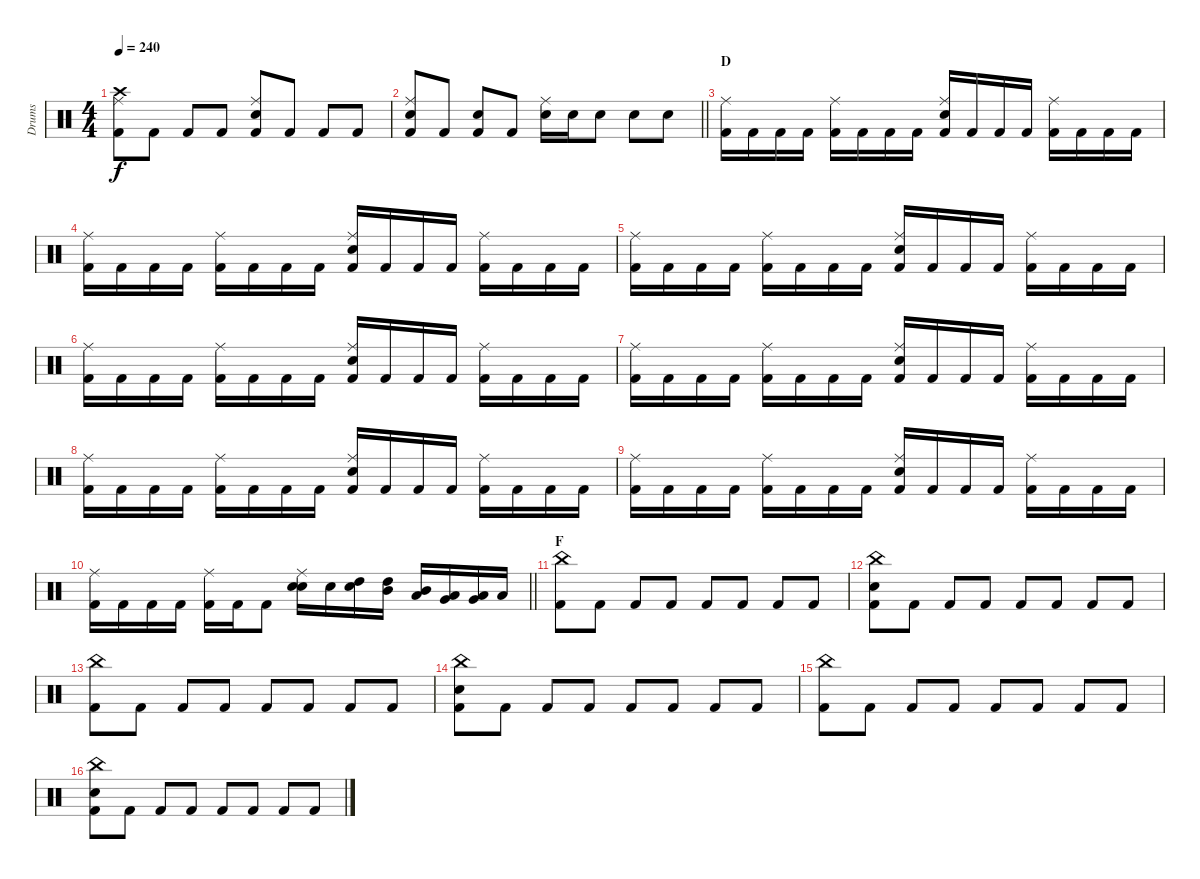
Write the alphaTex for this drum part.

\track ("Drums" "Drums") {instrument percussion}
\staff {score}
\articulation defaults
\ts (4 4)
\tempo 240
\clef neutral
\ks c
("Kick (hit) 2" "Crash high (hit)" "Ride (middle)").8{dy f} "Kick (hit) 2".8 "Kick (hit) 2".8 "Kick (hit) 2".8 ("Kick (hit) 2" "Snare (hit) 2" "Ride (middle)").8 "Kick (hit) 2".8 "Kick (hit) 2".8 "Kick (hit) 2".8 |
\barLineRight lightlight
("Kick (hit) 2" "Snare (hit) 2" "Ride (middle)").8 "Kick (hit) 2".8 ("Kick (hit) 2" "Snare (hit) 2").8 "Kick (hit) 2".8 ("Snare (hit) 2" "Ride (middle)").16 "Snare (hit) 2".16 "Snare (hit) 2".8 "Snare (hit) 2".8 "Snare (hit) 2".8 |
\section ("" "D")
("Kick (hit) 2" "Ride (middle)").16 "Kick (hit) 2".16 "Kick (hit) 2".16 "Kick (hit) 2".16 ("Kick (hit) 2" "Ride (middle)").16 "Kick (hit) 2".16 "Kick (hit) 2".16 "Kick (hit) 2".16 ("Kick (hit) 2" "Snare (hit) 2" "Ride (middle)").16 "Kick (hit) 2".16 "Kick (hit) 2".16 "Kick (hit) 2".16 ("Kick (hit) 2" "Ride (middle)").16 "Kick (hit) 2".16 "Kick (hit) 2".16 "Kick (hit) 2".16 |
("Kick (hit) 2" "Ride (middle)").16 "Kick (hit) 2".16 "Kick (hit) 2".16 "Kick (hit) 2".16 ("Kick (hit) 2" "Ride (middle)").16 "Kick (hit) 2".16 "Kick (hit) 2".16 "Kick (hit) 2".16 ("Kick (hit) 2" "Snare (hit) 2" "Ride (middle)").16 "Kick (hit) 2".16 "Kick (hit) 2".16 "Kick (hit) 2".16 ("Kick (hit) 2" "Ride (middle)").16 "Kick (hit) 2".16 "Kick (hit) 2".16 "Kick (hit) 2".16 |
("Kick (hit) 2" "Ride (middle)").16 "Kick (hit) 2".16 "Kick (hit) 2".16 "Kick (hit) 2".16 ("Kick (hit) 2" "Ride (middle)").16 "Kick (hit) 2".16 "Kick (hit) 2".16 "Kick (hit) 2".16 ("Kick (hit) 2" "Snare (hit) 2" "Ride (middle)").16 "Kick (hit) 2".16 "Kick (hit) 2".16 "Kick (hit) 2".16 ("Kick (hit) 2" "Ride (middle)").16 "Kick (hit) 2".16 "Kick (hit) 2".16 "Kick (hit) 2".16 |
("Kick (hit) 2" "Ride (middle)").16 "Kick (hit) 2".16 "Kick (hit) 2".16 "Kick (hit) 2".16 ("Kick (hit) 2" "Ride (middle)").16 "Kick (hit) 2".16 "Kick (hit) 2".16 "Kick (hit) 2".16 ("Kick (hit) 2" "Snare (hit) 2" "Ride (middle)").16 "Kick (hit) 2".16 "Kick (hit) 2".16 "Kick (hit) 2".16 ("Kick (hit) 2" "Ride (middle)").16 "Kick (hit) 2".16 "Kick (hit) 2".16 "Kick (hit) 2".16 |
("Kick (hit) 2" "Ride (middle)").16 "Kick (hit) 2".16 "Kick (hit) 2".16 "Kick (hit) 2".16 ("Kick (hit) 2" "Ride (middle)").16 "Kick (hit) 2".16 "Kick (hit) 2".16 "Kick (hit) 2".16 ("Kick (hit) 2" "Snare (hit) 2" "Ride (middle)").16 "Kick (hit) 2".16 "Kick (hit) 2".16 "Kick (hit) 2".16 ("Kick (hit) 2" "Ride (middle)").16 "Kick (hit) 2".16 "Kick (hit) 2".16 "Kick (hit) 2".16 |
("Kick (hit) 2" "Ride (middle)").16 "Kick (hit) 2".16 "Kick (hit) 2".16 "Kick (hit) 2".16 ("Kick (hit) 2" "Ride (middle)").16 "Kick (hit) 2".16 "Kick (hit) 2".16 "Kick (hit) 2".16 ("Kick (hit) 2" "Snare (hit) 2" "Ride (middle)").16 "Kick (hit) 2".16 "Kick (hit) 2".16 "Kick (hit) 2".16 ("Kick (hit) 2" "Ride (middle)").16 "Kick (hit) 2".16 "Kick (hit) 2".16 "Kick (hit) 2".16 |
("Kick (hit) 2" "Ride (middle)").16 "Kick (hit) 2".16 "Kick (hit) 2".16 "Kick (hit) 2".16 ("Kick (hit) 2" "Ride (middle)").16 "Kick (hit) 2".16 "Kick (hit) 2".16 "Kick (hit) 2".16 ("Kick (hit) 2" "Snare (hit) 2" "Ride (middle)").16 "Kick (hit) 2".16 "Kick (hit) 2".16 "Kick (hit) 2".16 ("Kick (hit) 2" "Ride (middle)").16 "Kick (hit) 2".16 "Kick (hit) 2".16 "Kick (hit) 2".16 |
\barLineRight lightlight
("Kick (hit) 2" "Ride (middle)").16 "Kick (hit) 2".16 "Kick (hit) 2".16 "Kick (hit) 2".16 ("Kick (hit) 2" "Ride (middle)").16 "Kick (hit) 2".16 "Kick (hit) 2".8 ("Snare (hit) 2" "Snare (hit) 2" "Ride (middle)").16 "Snare (hit) 2".16 ("Snare (hit) 2" "High Tom (hit)").16 ("High Tom (hit)" "Mid Tom (hit)").16 ("Mid Tom (hit)" "Low Tom (hit)").16 ("Low Tom (hit)" "Very Low Tom (hit)").16 ("Very Low Tom (hit)" "Low Floor Tom (hit)").16 "Low Floor Tom (hit)".16 |
\section ("" "F")
("Kick (hit) 2" "China (hit)").8 "Kick (hit) 2".8 "Kick (hit) 2".8 "Kick (hit) 2".8 "Kick (hit) 2".8 "Kick (hit) 2".8 "Kick (hit) 2".8 "Kick (hit) 2".8 |
("Kick (hit) 2" "Snare (hit) 2" "China (hit)").8 "Kick (hit) 2".8 "Kick (hit) 2".8 "Kick (hit) 2".8 "Kick (hit) 2".8 "Kick (hit) 2".8 "Kick (hit) 2".8 "Kick (hit) 2".8 |
("Kick (hit) 2" "China (hit)").8 "Kick (hit) 2".8 "Kick (hit) 2".8 "Kick (hit) 2".8 "Kick (hit) 2".8 "Kick (hit) 2".8 "Kick (hit) 2".8 "Kick (hit) 2".8 |
("Kick (hit) 2" "Snare (hit) 2" "China (hit)").8 "Kick (hit) 2".8 "Kick (hit) 2".8 "Kick (hit) 2".8 "Kick (hit) 2".8 "Kick (hit) 2".8 "Kick (hit) 2".8 "Kick (hit) 2".8 |
("Kick (hit) 2" "China (hit)").8 "Kick (hit) 2".8 "Kick (hit) 2".8 "Kick (hit) 2".8 "Kick (hit) 2".8 "Kick (hit) 2".8 "Kick (hit) 2".8 "Kick (hit) 2".8 |
("Kick (hit) 2" "Snare (hit) 2" "China (hit)").8 "Kick (hit) 2".8 "Kick (hit) 2".8 "Kick (hit) 2".8 "Kick (hit) 2".8 "Kick (hit) 2".8 "Kick (hit) 2".8 "Kick (hit) 2".8
